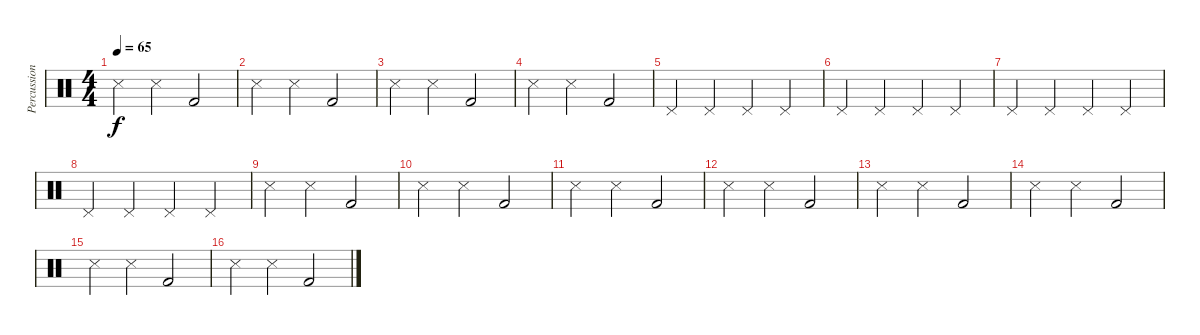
\track ("Percussion" "Percussion") {instrument percussion}
\staff {score}
\articulation defaults
\ts (4 4)
\tempo 65
\clef neutral
\ks c "Snare (side stick) 3".4{dy f} "Snare (side stick) 3".4 "Kick (hit) 2".2
|
"Snare (side stick) 3".4 "Snare (side stick) 3".4 "Kick (hit) 2".2 |
"Snare (side stick) 3".4 "Snare (side stick) 3".4 "Kick (hit) 2".2 |
"Snare (side stick) 3".4 "Snare (side stick) 3".4 "Kick (hit) 2".2 |
"Pedal Hi-Hat (hit)".4 "Pedal Hi-Hat (hit)".4 "Pedal Hi-Hat (hit)".4 "Pedal Hi-Hat (hit)".4 |
"Pedal Hi-Hat (hit)".4 "Pedal Hi-Hat (hit)".4 "Pedal Hi-Hat (hit)".4 "Pedal Hi-Hat (hit)".4 |
"Pedal Hi-Hat (hit)".4 "Pedal Hi-Hat (hit)".4 "Pedal Hi-Hat (hit)".4 "Pedal Hi-Hat (hit)".4 |
"Pedal Hi-Hat (hit)".4 "Pedal Hi-Hat (hit)".4 "Pedal Hi-Hat (hit)".4 "Pedal Hi-Hat (hit)".4 |
"Snare (side stick) 3".4 "Snare (side stick) 3".4 "Kick (hit) 2".2 |
"Snare (side stick) 3".4 "Snare (side stick) 3".4 "Kick (hit) 2".2 |
"Snare (side stick) 3".4 "Snare (side stick) 3".4 "Kick (hit) 2".2 |
"Snare (side stick) 3".4 "Snare (side stick) 3".4 "Kick (hit) 2".2 |
"Snare (side stick) 3".4 "Snare (side stick) 3".4 "Kick (hit) 2".2 |
"Snare (side stick) 3".4 "Snare (side stick) 3".4 "Kick (hit) 2".2 |
"Snare (side stick) 3".4 "Snare (side stick) 3".4 "Kick (hit) 2".2 |
"Snare (side stick) 3".4 "Snare (side stick) 3".4 "Kick (hit) 2".2
